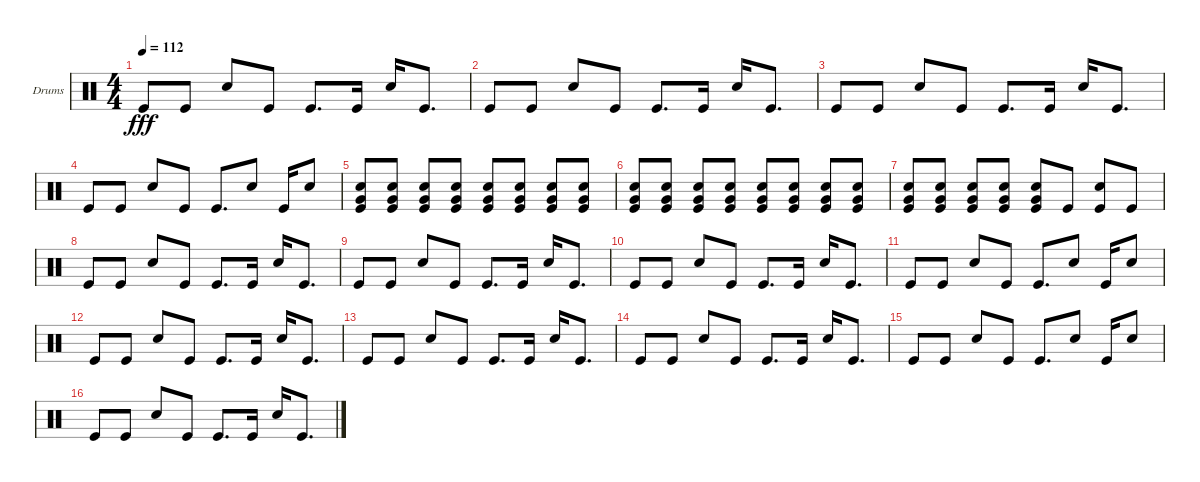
\defaultSystemsLayout 4
\bracketExtendMode groupsimilarinstruments
\firstSystemTrackNameOrientation horizontal
\otherSystemsTrackNameOrientation horizontal
\track ("Helders" "Drums") {instrument percussion}
\staff {score}
\articulation defaults
\ts (4 4)
\tempo 112
\clef neutral
\ks c "Kick (hit)".8{dy fff} "Kick (hit)".8 "Snare (hit) 2".8 "Kick (hit)".8 "Kick (hit)".8{d} "Kick (hit)".16 "Snare (hit) 2".16 "Kick (hit)".8{d}
|
"Kick (hit)".8 "Kick (hit)".8 "Snare (hit) 2".8 "Kick (hit)".8 "Kick (hit)".8{d} "Kick (hit)".16 "Snare (hit) 2".16 "Kick (hit)".8{d} |
"Kick (hit)".8 "Kick (hit)".8 "Snare (hit) 2".8 "Kick (hit)".8 "Kick (hit)".8{d} "Kick (hit)".16 "Snare (hit) 2".16 "Kick (hit)".8{d} |
"Kick (hit)".8 "Kick (hit)".8 "Snare (hit) 2".8 "Kick (hit)".8 "Kick (hit)".8{d} "Snare (hit) 2".8 "Kick (hit)".16 "Snare (hit) 2".8 |
("Snare (hit) 2" "Kick (hit)" "Very Low Tom (hit)").8 ("Snare (hit) 2" "Kick (hit)" "Very Low Tom (hit)").8 ("Snare (hit) 2" "Kick (hit)" "Very Low Tom (hit)").8 ("Snare (hit) 2" "Kick (hit)" "Very Low Tom (hit)").8 ("Snare (hit) 2" "Kick (hit)" "Very Low Tom (hit)").8 ("Snare (hit) 2" "Kick (hit)" "Very Low Tom (hit)").8 ("Snare (hit) 2" "Kick (hit)" "Very Low Tom (hit)").8 ("Snare (hit) 2" "Kick (hit)" "Very Low Tom (hit)").8 |
("Snare (hit) 2" "Kick (hit)" "Very Low Tom (hit)").8 ("Snare (hit) 2" "Kick (hit)" "Very Low Tom (hit)").8 ("Snare (hit) 2" "Kick (hit)" "Very Low Tom (hit)").8 ("Snare (hit) 2" "Kick (hit)" "Very Low Tom (hit)").8 ("Snare (hit) 2" "Kick (hit)" "Very Low Tom (hit)").8 ("Snare (hit) 2" "Kick (hit)" "Very Low Tom (hit)").8 ("Snare (hit) 2" "Kick (hit)" "Very Low Tom (hit)").8 ("Snare (hit) 2" "Kick (hit)" "Very Low Tom (hit)").8 |
("Snare (hit) 2" "Kick (hit)" "Very Low Tom (hit)").8 ("Snare (hit) 2" "Kick (hit)" "Very Low Tom (hit)").8 ("Snare (hit) 2" "Kick (hit)" "Very Low Tom (hit)").8 ("Snare (hit) 2" "Kick (hit)" "Very Low Tom (hit)").8 ("Snare (hit) 2" "Kick (hit)" "Very Low Tom (hit)").8 "Kick (hit)".8 ("Snare (hit) 2" "Kick (hit)").8 "Kick (hit)".8 |
"Kick (hit)".8 "Kick (hit)".8 "Snare (hit) 2".8 "Kick (hit)".8 "Kick (hit)".8{d} "Kick (hit)".16 "Snare (hit) 2".16 "Kick (hit)".8{d} |
"Kick (hit)".8 "Kick (hit)".8 "Snare (hit) 2".8 "Kick (hit)".8 "Kick (hit)".8{d} "Kick (hit)".16 "Snare (hit) 2".16 "Kick (hit)".8{d} |
"Kick (hit)".8 "Kick (hit)".8 "Snare (hit) 2".8 "Kick (hit)".8 "Kick (hit)".8{d} "Kick (hit)".16 "Snare (hit) 2".16 "Kick (hit)".8{d} |
"Kick (hit)".8 "Kick (hit)".8 "Snare (hit) 2".8 "Kick (hit)".8 "Kick (hit)".8{d} "Snare (hit) 2".8 "Kick (hit)".16 "Snare (hit) 2".8 |
"Kick (hit)".8 "Kick (hit)".8 "Snare (hit) 2".8 "Kick (hit)".8 "Kick (hit)".8{d} "Kick (hit)".16 "Snare (hit) 2".16 "Kick (hit)".8{d} |
"Kick (hit)".8 "Kick (hit)".8 "Snare (hit) 2".8 "Kick (hit)".8 "Kick (hit)".8{d} "Kick (hit)".16 "Snare (hit) 2".16 "Kick (hit)".8{d} |
"Kick (hit)".8 "Kick (hit)".8 "Snare (hit) 2".8 "Kick (hit)".8 "Kick (hit)".8{d} "Kick (hit)".16 "Snare (hit) 2".16 "Kick (hit)".8{d} |
"Kick (hit)".8 "Kick (hit)".8 "Snare (hit) 2".8 "Kick (hit)".8 "Kick (hit)".8{d} "Snare (hit) 2".8 "Kick (hit)".16 "Snare (hit) 2".8 |
"Kick (hit)".8 "Kick (hit)".8 "Snare (hit) 2".8 "Kick (hit)".8 "Kick (hit)".8{d} "Kick (hit)".16 "Snare (hit) 2".16 "Kick (hit)".8{d}
